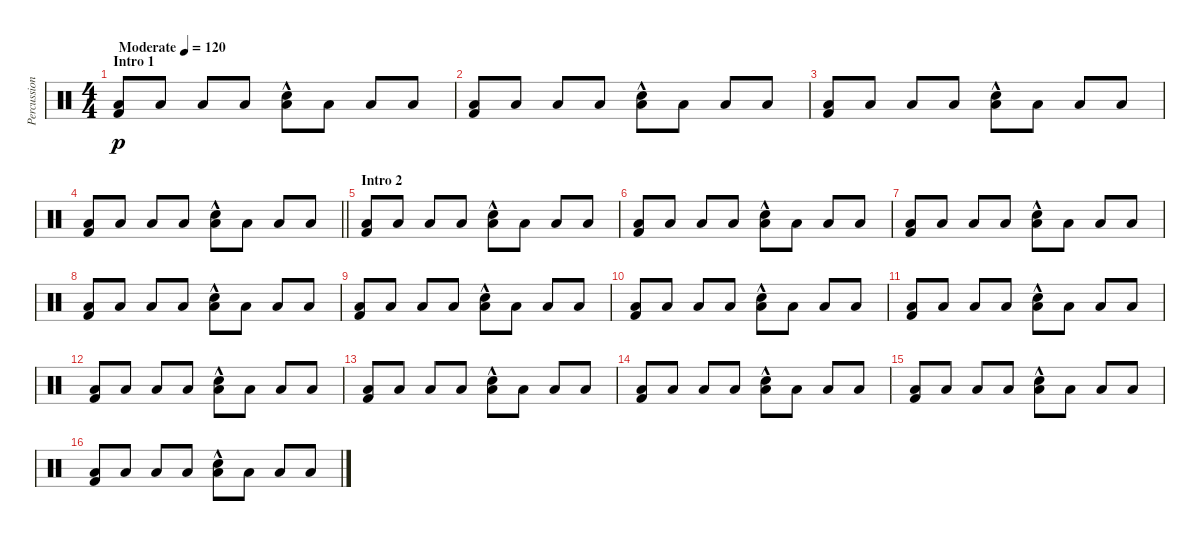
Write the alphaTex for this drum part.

\track ("Percussion" "Percussion") {instrument percussion}
\staff {score}
\articulation defaults
\ts (4 4)
\section ("" "Intro 1")
\tempo (120 "Moderate")
\clef neutral
\ks c
("Kick (hit) 2" "Low Floor Tom (hit)").8{dy p} "Low Floor Tom (hit)".8 "Low Floor Tom (hit)".8 "Low Floor Tom (hit)".8 ("Snare (hit) 2"{hac} "Low Floor Tom (hit)").8 "Low Floor Tom (hit)".8 "Low Floor Tom (hit)".8 "Low Floor Tom (hit)".8 |
("Kick (hit) 2" "Low Floor Tom (hit)").8 "Low Floor Tom (hit)".8 "Low Floor Tom (hit)".8 "Low Floor Tom (hit)".8 ("Snare (hit) 2"{hac} "Low Floor Tom (hit)").8 "Low Floor Tom (hit)".8 "Low Floor Tom (hit)".8 "Low Floor Tom (hit)".8 |
("Kick (hit) 2" "Low Floor Tom (hit)").8 "Low Floor Tom (hit)".8 "Low Floor Tom (hit)".8 "Low Floor Tom (hit)".8 ("Snare (hit) 2"{hac} "Low Floor Tom (hit)").8 "Low Floor Tom (hit)".8 "Low Floor Tom (hit)".8 "Low Floor Tom (hit)".8 |
\barLineRight lightlight
("Kick (hit) 2" "Low Floor Tom (hit)").8 "Low Floor Tom (hit)".8 "Low Floor Tom (hit)".8 "Low Floor Tom (hit)".8 ("Snare (hit) 2"{hac} "Low Floor Tom (hit)").8 "Low Floor Tom (hit)".8 "Low Floor Tom (hit)".8 "Low Floor Tom (hit)".8 |
\section ("" "Intro 2")
("Kick (hit) 2" "Low Floor Tom (hit)").8 "Low Floor Tom (hit)".8 "Low Floor Tom (hit)".8 "Low Floor Tom (hit)".8 ("Snare (hit) 2"{hac} "Low Floor Tom (hit)").8 "Low Floor Tom (hit)".8 "Low Floor Tom (hit)".8 "Low Floor Tom (hit)".8 |
("Kick (hit) 2" "Low Floor Tom (hit)").8 "Low Floor Tom (hit)".8 "Low Floor Tom (hit)".8 "Low Floor Tom (hit)".8 ("Snare (hit) 2"{hac} "Low Floor Tom (hit)").8 "Low Floor Tom (hit)".8 "Low Floor Tom (hit)".8 "Low Floor Tom (hit)".8 |
("Kick (hit) 2" "Low Floor Tom (hit)").8 "Low Floor Tom (hit)".8 "Low Floor Tom (hit)".8 "Low Floor Tom (hit)".8 ("Snare (hit) 2"{hac} "Low Floor Tom (hit)").8 "Low Floor Tom (hit)".8 "Low Floor Tom (hit)".8 "Low Floor Tom (hit)".8 |
("Kick (hit) 2" "Low Floor Tom (hit)").8 "Low Floor Tom (hit)".8 "Low Floor Tom (hit)".8 "Low Floor Tom (hit)".8 ("Snare (hit) 2"{hac} "Low Floor Tom (hit)").8 "Low Floor Tom (hit)".8 "Low Floor Tom (hit)".8 "Low Floor Tom (hit)".8 |
("Kick (hit) 2" "Low Floor Tom (hit)").8 "Low Floor Tom (hit)".8 "Low Floor Tom (hit)".8 "Low Floor Tom (hit)".8 ("Snare (hit) 2"{hac} "Low Floor Tom (hit)").8 "Low Floor Tom (hit)".8 "Low Floor Tom (hit)".8 "Low Floor Tom (hit)".8 |
("Kick (hit) 2" "Low Floor Tom (hit)").8 "Low Floor Tom (hit)".8 "Low Floor Tom (hit)".8 "Low Floor Tom (hit)".8 ("Snare (hit) 2"{hac} "Low Floor Tom (hit)").8 "Low Floor Tom (hit)".8 "Low Floor Tom (hit)".8 "Low Floor Tom (hit)".8 |
("Kick (hit) 2" "Low Floor Tom (hit)").8 "Low Floor Tom (hit)".8 "Low Floor Tom (hit)".8 "Low Floor Tom (hit)".8 ("Snare (hit) 2"{hac} "Low Floor Tom (hit)").8 "Low Floor Tom (hit)".8 "Low Floor Tom (hit)".8 "Low Floor Tom (hit)".8 |
("Kick (hit) 2" "Low Floor Tom (hit)").8 "Low Floor Tom (hit)".8 "Low Floor Tom (hit)".8 "Low Floor Tom (hit)".8 ("Snare (hit) 2"{hac} "Low Floor Tom (hit)").8 "Low Floor Tom (hit)".8 "Low Floor Tom (hit)".8 "Low Floor Tom (hit)".8 |
("Kick (hit) 2" "Low Floor Tom (hit)").8 "Low Floor Tom (hit)".8 "Low Floor Tom (hit)".8 "Low Floor Tom (hit)".8 ("Snare (hit) 2"{hac} "Low Floor Tom (hit)").8 "Low Floor Tom (hit)".8 "Low Floor Tom (hit)".8 "Low Floor Tom (hit)".8 |
("Kick (hit) 2" "Low Floor Tom (hit)").8 "Low Floor Tom (hit)".8 "Low Floor Tom (hit)".8 "Low Floor Tom (hit)".8 ("Snare (hit) 2"{hac} "Low Floor Tom (hit)").8 "Low Floor Tom (hit)".8 "Low Floor Tom (hit)".8 "Low Floor Tom (hit)".8 |
("Kick (hit) 2" "Low Floor Tom (hit)").8 "Low Floor Tom (hit)".8 "Low Floor Tom (hit)".8 "Low Floor Tom (hit)".8 ("Snare (hit) 2"{hac} "Low Floor Tom (hit)").8 "Low Floor Tom (hit)".8 "Low Floor Tom (hit)".8 "Low Floor Tom (hit)".8 |
("Kick (hit) 2" "Low Floor Tom (hit)").8 "Low Floor Tom (hit)".8 "Low Floor Tom (hit)".8 "Low Floor Tom (hit)".8 ("Snare (hit) 2"{hac} "Low Floor Tom (hit)").8 "Low Floor Tom (hit)".8 "Low Floor Tom (hit)".8 "Low Floor Tom (hit)".8
